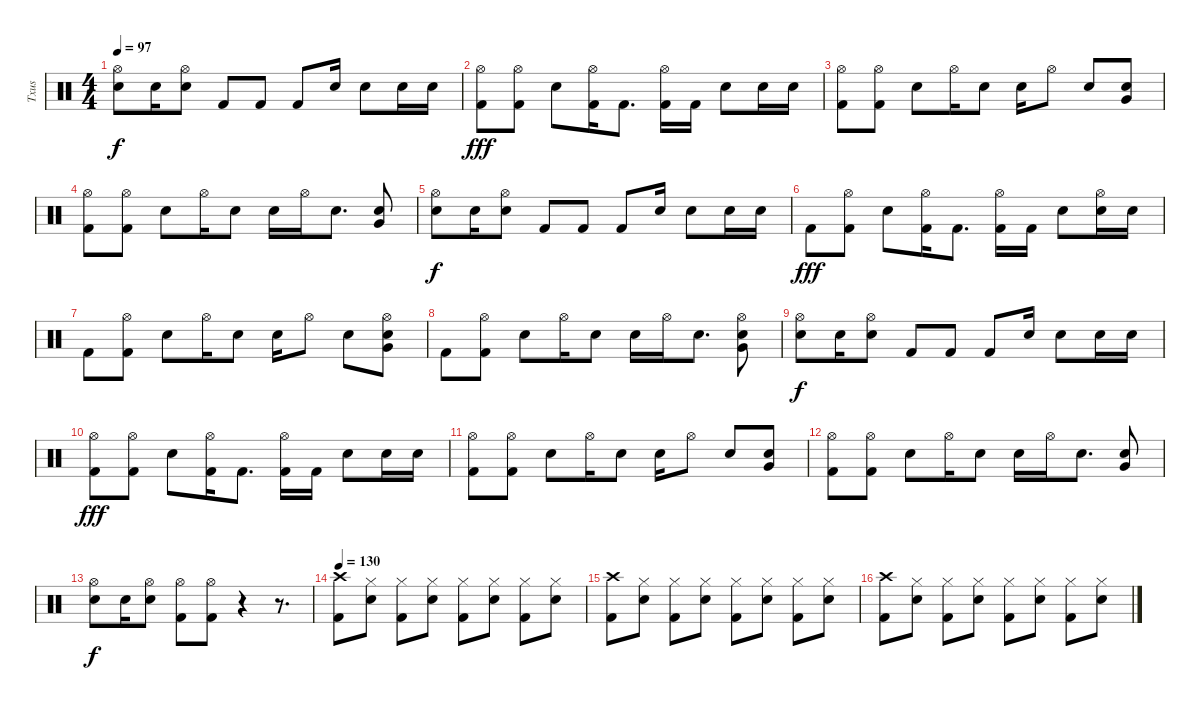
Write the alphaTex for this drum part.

\track ("Txus" "Txus") {instrument percussion}
\staff {score}
\articulation defaults
\ts (4 4)
\tempo 97
\clef neutral
\ks c
("Hi-Hat (open)" "Snare (hit) 2").8{dy f} "Snare (hit) 2".16 ("Hi-Hat (open)" "Snare (hit) 2").8 "Kick (hit) 2".8 "Kick (hit) 2".8 "Kick (hit) 2".8 "Snare (hit) 2".16 "Snare (hit) 2".8 "Snare (hit) 2".16 "Snare (hit) 2".16 |
("Hi-Hat (open)" "Kick (hit) 2").8{dy fff} ("Hi-Hat (open)" "Kick (hit) 2").8 "Snare (hit) 2".8 ("Hi-Hat (open)" "Kick (hit) 2").16 "Kick (hit) 2".8{d} ("Hi-Hat (open)" "Kick (hit) 2").16 "Kick (hit) 2".16 "Snare (hit) 2".8 "Snare (hit) 2".16 "Snare (hit) 2".16 |
("Hi-Hat (open)" "Kick (hit) 2").8 ("Hi-Hat (open)" "Kick (hit) 2").8 "Snare (hit) 2".8 "Hi-Hat (open)".16 "Snare (hit) 2".8 "Snare (hit) 2".16 "Hi-Hat (open)".8 "Snare (hit) 2".8 ("Very Low Tom (hit)" "Snare (hit) 2").8 |
("Hi-Hat (open)" "Kick (hit) 2").8 ("Hi-Hat (open)" "Kick (hit) 2").8 "Snare (hit) 2".8 "Hi-Hat (open)".16 "Snare (hit) 2".8 "Snare (hit) 2".16 "Hi-Hat (open)".16 "Snare (hit) 2".8{d} ("Very Low Tom (hit)" "Snare (hit) 2").8 |
("Hi-Hat (open)" "Snare (hit) 2").8{dy f} "Snare (hit) 2".16 ("Hi-Hat (open)" "Snare (hit) 2").8 "Kick (hit) 2".8 "Kick (hit) 2".8 "Kick (hit) 2".8 "Snare (hit) 2".16 "Snare (hit) 2".8 "Snare (hit) 2".16 "Snare (hit) 2".16 |
"Kick (hit) 2".8{dy fff} ("Hi-Hat (open)" "Kick (hit) 2").8 "Snare (hit) 2".8 ("Hi-Hat (open)" "Kick (hit) 2").16 "Kick (hit) 2".8{d} ("Hi-Hat (open)" "Kick (hit) 2").16 "Kick (hit) 2".16 "Snare (hit) 2".8 ("Snare (hit) 2" "Hi-Hat (open)").16 "Snare (hit) 2".16 |
"Kick (hit) 2".8 ("Hi-Hat (open)" "Kick (hit) 2").8 "Snare (hit) 2".8 "Hi-Hat (open)".16 "Snare (hit) 2".8 "Snare (hit) 2".16 "Hi-Hat (open)".8 "Snare (hit) 2".8 ("Very Low Tom (hit)" "Snare (hit) 2" "Hi-Hat (open)").8 |
"Kick (hit) 2".8 ("Hi-Hat (open)" "Kick (hit) 2").8 "Snare (hit) 2".8 "Hi-Hat (open)".16 "Snare (hit) 2".8 "Snare (hit) 2".16 "Hi-Hat (open)".16 "Snare (hit) 2".8{d} ("Very Low Tom (hit)" "Snare (hit) 2" "Hi-Hat (open)").8 |
("Hi-Hat (open)" "Snare (hit) 2").8{dy f} "Snare (hit) 2".16 ("Hi-Hat (open)" "Snare (hit) 2").8 "Kick (hit) 2".8 "Kick (hit) 2".8 "Kick (hit) 2".8 "Snare (hit) 2".16 "Snare (hit) 2".8 "Snare (hit) 2".16 "Snare (hit) 2".16 |
("Hi-Hat (open)" "Kick (hit) 2").8{dy fff} ("Hi-Hat (open)" "Kick (hit) 2").8 "Snare (hit) 2".8 ("Hi-Hat (open)" "Kick (hit) 2").16 "Kick (hit) 2".8{d} ("Hi-Hat (open)" "Kick (hit) 2").16 "Kick (hit) 2".16 "Snare (hit) 2".8 "Snare (hit) 2".16 "Snare (hit) 2".16 |
("Hi-Hat (open)" "Kick (hit) 2").8 ("Hi-Hat (open)" "Kick (hit) 2").8 "Snare (hit) 2".8 "Hi-Hat (open)".16 "Snare (hit) 2".8 "Snare (hit) 2".16 "Hi-Hat (open)".8 "Snare (hit) 2".8 ("Very Low Tom (hit)" "Snare (hit) 2").8 |
("Hi-Hat (open)" "Kick (hit) 2").8 ("Hi-Hat (open)" "Kick (hit) 2").8 "Snare (hit) 2".8 "Hi-Hat (open)".16 "Snare (hit) 2".8 "Snare (hit) 2".16 "Hi-Hat (open)".16 "Snare (hit) 2".8{d} ("Very Low Tom (hit)" "Snare (hit) 2").8 |
("Hi-Hat (open)" "Snare (hit) 2").8{dy f} "Snare (hit) 2".16 ("Hi-Hat (open)" "Snare (hit) 2").8 ("Hi-Hat (open)" "Kick (hit) 2").8 ("Hi-Hat (open)" "Kick (hit) 2").8 r.4 r.8{d} |
\tempo 200
\tempo 130
("Crash high (hit)" "Kick (hit) 2").8 ("Hi-Hat (closed)" "Snare (hit) 2").8 ("Hi-Hat (closed)" "Kick (hit) 2").8 ("Hi-Hat (closed)" "Snare (hit) 2").8 ("Hi-Hat (closed)" "Kick (hit) 2").8 ("Hi-Hat (closed)" "Snare (hit) 2").8 ("Hi-Hat (closed)" "Kick (hit) 2").8 ("Hi-Hat (closed)" "Snare (hit) 2").8 |
("Crash high (hit)" "Kick (hit) 2").8 ("Hi-Hat (closed)" "Snare (hit) 2").8 ("Hi-Hat (closed)" "Kick (hit) 2").8 ("Hi-Hat (closed)" "Snare (hit) 2").8 ("Hi-Hat (closed)" "Kick (hit) 2").8 ("Hi-Hat (closed)" "Snare (hit) 2").8 ("Hi-Hat (closed)" "Kick (hit) 2").8 ("Hi-Hat (closed)" "Snare (hit) 2").8 |
("Crash high (hit)" "Kick (hit) 2").8 ("Hi-Hat (closed)" "Snare (hit) 2").8 ("Hi-Hat (closed)" "Kick (hit) 2").8 ("Hi-Hat (closed)" "Snare (hit) 2").8 ("Hi-Hat (closed)" "Kick (hit) 2").8 ("Hi-Hat (closed)" "Snare (hit) 2").8 ("Hi-Hat (closed)" "Kick (hit) 2").8 ("Hi-Hat (closed)" "Snare (hit) 2").8
